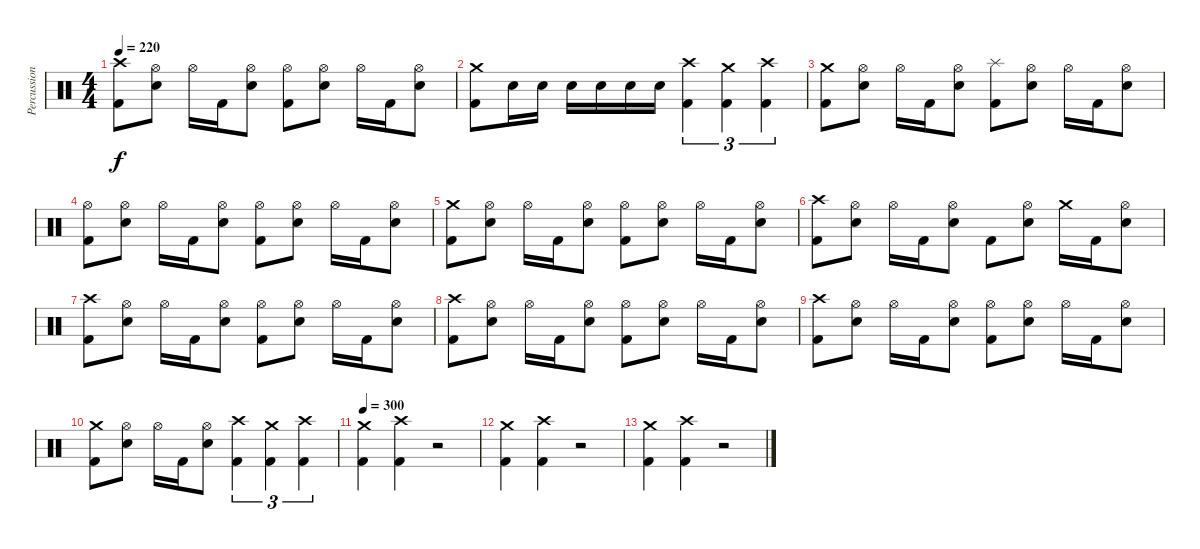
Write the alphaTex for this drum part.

\track ("Percussion" "Percussion") {instrument percussion}
\staff {score}
\articulation defaults
\ts (4 4)
\tempo 220
\clef neutral
\ks c
("Crash high (hit)" "Kick (hit) 2").8{dy f} ("Hi-Hat (open)" "Electric Snare (hit)").8 "Hi-Hat (open)".16 "Kick (hit) 2".16 ("Hi-Hat (open)" "Electric Snare (hit)").8 ("Hi-Hat (open)" "Kick (hit) 2").8 ("Hi-Hat (open)" "Electric Snare (hit)").8 "Hi-Hat (open)".16 "Kick (hit) 2".16 ("Hi-Hat (open)" "Electric Snare (hit)").8 |
("Crash medium (hit)" "Kick (hit) 2").8 "Electric Snare (hit)".16 "Electric Snare (hit)".16 "Electric Snare (hit)".16 "Electric Snare (hit)".16 "Electric Snare (hit)".16 "Electric Snare (hit)".16 ("Crash high (hit)" "Kick (hit) 2").4{tu (3 2)} ("Crash medium (hit)" "Kick (hit) 2").4{tu (3 2)} ("Crash high (hit)" "Kick (hit) 2").4{tu (3 2)} |
("Crash medium (hit)" "Kick (hit) 2").8 ("Hi-Hat (open)" "Electric Snare (hit)").8 "Hi-Hat (open)".16 "Kick (hit) 2".16 ("Hi-Hat (open)" "Electric Snare (hit)").8 ("Splash (hit)" "Kick (hit) 2").8 ("Hi-Hat (open)" "Electric Snare (hit)").8 "Hi-Hat (open)".16 "Kick (hit) 2".16 ("Hi-Hat (open)" "Electric Snare (hit)").8 |
("Hi-Hat (open)" "Kick (hit) 2").8 ("Hi-Hat (open)" "Electric Snare (hit)").8 "Hi-Hat (open)".16 "Kick (hit) 2".16 ("Hi-Hat (open)" "Electric Snare (hit)").8 ("Hi-Hat (open)" "Kick (hit) 2").8 ("Hi-Hat (open)" "Electric Snare (hit)").8 "Hi-Hat (open)".16 "Kick (hit) 2".16 ("Hi-Hat (open)" "Electric Snare (hit)").8 |
("Crash medium (hit)" "Kick (hit) 2").8 ("Hi-Hat (open)" "Electric Snare (hit)").8 "Hi-Hat (open)".16 "Kick (hit) 2".16 ("Hi-Hat (open)" "Electric Snare (hit)").8 ("Hi-Hat (open)" "Kick (hit) 2").8 ("Hi-Hat (open)" "Electric Snare (hit)").8 "Hi-Hat (open)".16 "Kick (hit) 2".16 ("Hi-Hat (open)" "Electric Snare (hit)").8 |
("Crash high (hit)" "Kick (hit) 2").8 ("Hi-Hat (open)" "Electric Snare (hit)").8 "Hi-Hat (open)".16 "Kick (hit) 2".16 ("Hi-Hat (open)" "Electric Snare (hit)").8 "Kick (hit) 2".8 ("Hi-Hat (open)" "Electric Snare (hit)").8 "Crash medium (hit)".16 "Kick (hit) 2".16 ("Hi-Hat (open)" "Electric Snare (hit)").8 |
("Crash high (hit)" "Kick (hit) 2").8 ("Hi-Hat (open)" "Electric Snare (hit)").8 "Hi-Hat (open)".16 "Kick (hit) 2".16 ("Hi-Hat (open)" "Electric Snare (hit)").8 ("Hi-Hat (open)" "Kick (hit) 2").8 ("Hi-Hat (open)" "Electric Snare (hit)").8 "Hi-Hat (open)".16 "Kick (hit) 2".16 ("Hi-Hat (open)" "Electric Snare (hit)").8 |
("Crash high (hit)" "Kick (hit) 2").8 ("Hi-Hat (open)" "Electric Snare (hit)").8 "Hi-Hat (open)".16 "Kick (hit) 2".16 ("Hi-Hat (open)" "Electric Snare (hit)").8 ("Hi-Hat (open)" "Kick (hit) 2").8 ("Hi-Hat (open)" "Electric Snare (hit)").8 "Hi-Hat (open)".16 "Kick (hit) 2".16 ("Hi-Hat (open)" "Electric Snare (hit)").8 |
("Crash high (hit)" "Kick (hit) 2").8 ("Hi-Hat (open)" "Electric Snare (hit)").8 "Hi-Hat (open)".16 "Kick (hit) 2".16 ("Hi-Hat (open)" "Electric Snare (hit)").8 ("Hi-Hat (open)" "Kick (hit) 2").8 ("Hi-Hat (open)" "Electric Snare (hit)").8 "Hi-Hat (open)".16 "Kick (hit) 2".16 ("Hi-Hat (open)" "Electric Snare (hit)").8 |
("Crash medium (hit)" "Kick (hit) 2").8 ("Hi-Hat (open)" "Electric Snare (hit)").8 "Hi-Hat (open)".16 "Kick (hit) 2".16 ("Hi-Hat (open)" "Electric Snare (hit)").8 ("Crash high (hit)" "Kick (hit) 2").4{tu (3 2)} ("Crash medium (hit)" "Kick (hit) 2").4{tu (3 2)} ("Crash high (hit)" "Kick (hit) 2").4{tu (3 2)} |
\tempo 300
("Crash medium (hit)" "Kick (hit) 2").4 ("Crash high (hit)" "Kick (hit) 2").4 r.2 |
("Crash medium (hit)" "Kick (hit) 2").4 ("Crash high (hit)" "Kick (hit) 2").4 r.2 |
("Crash medium (hit)" "Kick (hit) 2").4 ("Crash high (hit)" "Kick (hit) 2").4 r.2
